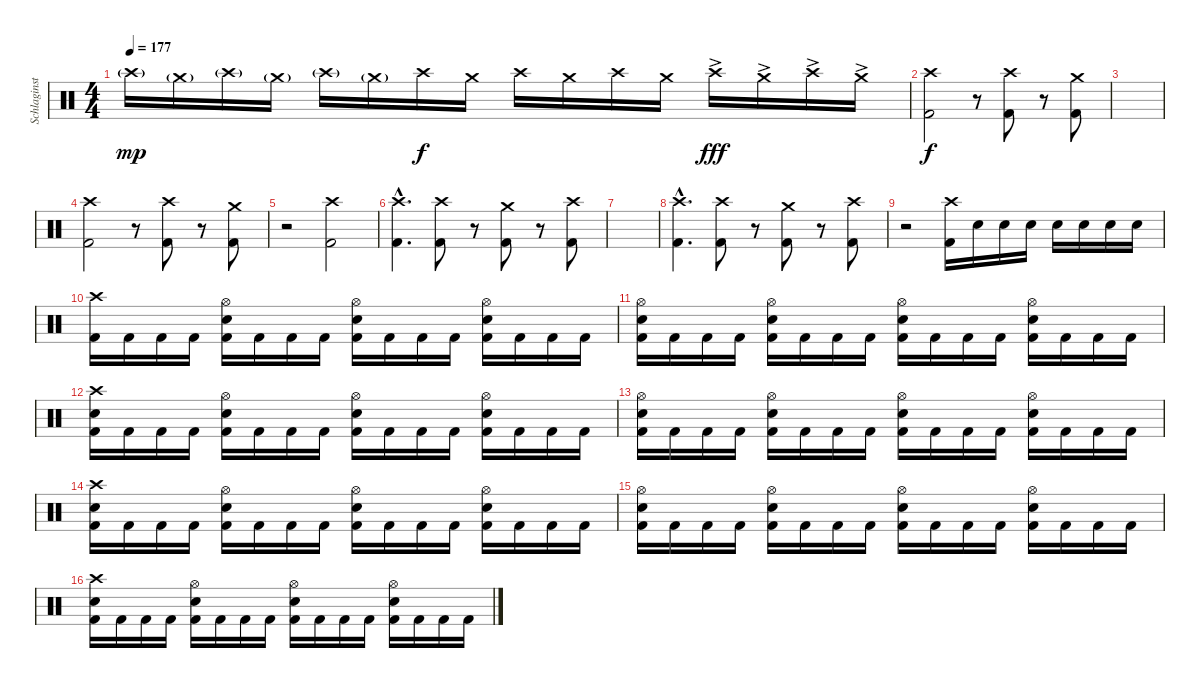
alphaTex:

\track ("Schlaginstrumente - Auswahl" "Schlaginst") {instrument percussion}
\staff {score}
\articulation defaults
\ts (4 4)
\tempo 177
\clef neutral
\ks c "Crash high (hit)"{g}.16{dy mp} "Crash medium (hit)"{g}.16 "Crash high (hit)"{g}.16 "Crash medium (hit)"{g}.16 "Crash high (hit)"{g}.16 "Crash medium (hit)"{g}.16 "Crash high (hit)".16{dy f} "Crash medium (hit)".16 "Crash high (hit)".16 "Crash medium (hit)".16 "Crash high (hit)".16 "Crash medium (hit)".16 "Crash high (hit)"{ac}.16{dy fff} "Crash medium (hit)"{ac}.16 "Crash high (hit)"{ac}.16 "Crash medium (hit)"{ac}.16
|
("Crash high (hit)" "Kick (hit) 2").2{dy f} r.8 ("Crash high (hit)" "Kick (hit) 2").8 r.8 ("Crash medium (hit)" "Kick (hit) 2").8 |
|
("Crash high (hit)" "Kick (hit) 2").2 r.8 ("Crash high (hit)" "Kick (hit) 2").8 r.8 ("Crash medium (hit)" "Kick (hit) 2").8 |
r.2 ("Crash high (hit)" "Kick (hit) 2").2 |
("Crash high (hit)"{hac} "Kick (hit) 2"{hac}).4{d} ("Crash high (hit)" "Kick (hit) 2").8 r.8 ("Crash medium (hit)" "Kick (hit) 2").8 r.8 ("Crash high (hit)" "Kick (hit) 2").8 |
|
("Crash high (hit)"{hac} "Kick (hit) 2"{hac}).4{d} ("Crash high (hit)" "Kick (hit) 2").8 r.8 ("Crash medium (hit)" "Kick (hit) 2").8 r.8 ("Crash high (hit)" "Kick (hit) 2").8 |
r.2 ("Crash high (hit)" "Kick (hit) 2").16 "Snare (hit) 2".16 "Snare (hit) 2".16 "Snare (hit) 2".16 "Snare (hit) 2".16 "Snare (hit) 2".16 "Snare (hit) 2".16 "Snare (hit) 2".16 |
("Crash high (hit)" "Kick (hit) 2").16 "Kick (hit) 2".16 "Kick (hit) 2".16 "Kick (hit) 2".16 ("Hi-Hat (open)" "Snare (hit) 2" "Kick (hit) 2").16 "Kick (hit) 2".16 "Kick (hit) 2".16 "Kick (hit) 2".16 ("Hi-Hat (open)" "Snare (hit) 2" "Kick (hit) 2").16 "Kick (hit) 2".16 "Kick (hit) 2".16 "Kick (hit) 2".16 ("Hi-Hat (open)" "Snare (hit) 2" "Kick (hit) 2").16 "Kick (hit) 2".16 "Kick (hit) 2".16 "Kick (hit) 2".16 |
("Hi-Hat (open)" "Snare (hit) 2" "Kick (hit) 2").16 "Kick (hit) 2".16 "Kick (hit) 2".16 "Kick (hit) 2".16 ("Hi-Hat (open)" "Snare (hit) 2" "Kick (hit) 2").16 "Kick (hit) 2".16 "Kick (hit) 2".16 "Kick (hit) 2".16 ("Hi-Hat (open)" "Snare (hit) 2" "Kick (hit) 2").16 "Kick (hit) 2".16 "Kick (hit) 2".16 "Kick (hit) 2".16 ("Hi-Hat (open)" "Snare (hit) 2" "Kick (hit) 2").16 "Kick (hit) 2".16 "Kick (hit) 2".16 "Kick (hit) 2".16 |
("Snare (hit) 2" "Crash high (hit)" "Kick (hit) 2").16 "Kick (hit) 2".16 "Kick (hit) 2".16 "Kick (hit) 2".16 ("Hi-Hat (open)" "Snare (hit) 2" "Kick (hit) 2").16 "Kick (hit) 2".16 "Kick (hit) 2".16 "Kick (hit) 2".16 ("Hi-Hat (open)" "Snare (hit) 2" "Kick (hit) 2").16 "Kick (hit) 2".16 "Kick (hit) 2".16 "Kick (hit) 2".16 ("Hi-Hat (open)" "Snare (hit) 2" "Kick (hit) 2").16 "Kick (hit) 2".16 "Kick (hit) 2".16 "Kick (hit) 2".16 |
("Hi-Hat (open)" "Snare (hit) 2" "Kick (hit) 2").16 "Kick (hit) 2".16 "Kick (hit) 2".16 "Kick (hit) 2".16 ("Hi-Hat (open)" "Snare (hit) 2" "Kick (hit) 2").16 "Kick (hit) 2".16 "Kick (hit) 2".16 "Kick (hit) 2".16 ("Hi-Hat (open)" "Snare (hit) 2" "Kick (hit) 2").16 "Kick (hit) 2".16 "Kick (hit) 2".16 "Kick (hit) 2".16 ("Hi-Hat (open)" "Snare (hit) 2" "Kick (hit) 2").16 "Kick (hit) 2".16 "Kick (hit) 2".16 "Kick (hit) 2".16 |
("Snare (hit) 2" "Crash high (hit)" "Kick (hit) 2").16 "Kick (hit) 2".16 "Kick (hit) 2".16 "Kick (hit) 2".16 ("Hi-Hat (open)" "Snare (hit) 2" "Kick (hit) 2").16 "Kick (hit) 2".16 "Kick (hit) 2".16 "Kick (hit) 2".16 ("Hi-Hat (open)" "Snare (hit) 2" "Kick (hit) 2").16 "Kick (hit) 2".16 "Kick (hit) 2".16 "Kick (hit) 2".16 ("Hi-Hat (open)" "Snare (hit) 2" "Kick (hit) 2").16 "Kick (hit) 2".16 "Kick (hit) 2".16 "Kick (hit) 2".16 |
("Hi-Hat (open)" "Snare (hit) 2" "Kick (hit) 2").16 "Kick (hit) 2".16 "Kick (hit) 2".16 "Kick (hit) 2".16 ("Hi-Hat (open)" "Snare (hit) 2" "Kick (hit) 2").16 "Kick (hit) 2".16 "Kick (hit) 2".16 "Kick (hit) 2".16 ("Hi-Hat (open)" "Snare (hit) 2" "Kick (hit) 2").16 "Kick (hit) 2".16 "Kick (hit) 2".16 "Kick (hit) 2".16 ("Hi-Hat (open)" "Snare (hit) 2" "Kick (hit) 2").16 "Kick (hit) 2".16 "Kick (hit) 2".16 "Kick (hit) 2".16 |
("Snare (hit) 2" "Crash high (hit)" "Kick (hit) 2").16 "Kick (hit) 2".16 "Kick (hit) 2".16 "Kick (hit) 2".16 ("Hi-Hat (open)" "Snare (hit) 2" "Kick (hit) 2").16 "Kick (hit) 2".16 "Kick (hit) 2".16 "Kick (hit) 2".16 ("Hi-Hat (open)" "Snare (hit) 2" "Kick (hit) 2").16 "Kick (hit) 2".16 "Kick (hit) 2".16 "Kick (hit) 2".16 ("Hi-Hat (open)" "Snare (hit) 2" "Kick (hit) 2").16 "Kick (hit) 2".16 "Kick (hit) 2".16 "Kick (hit) 2".16
